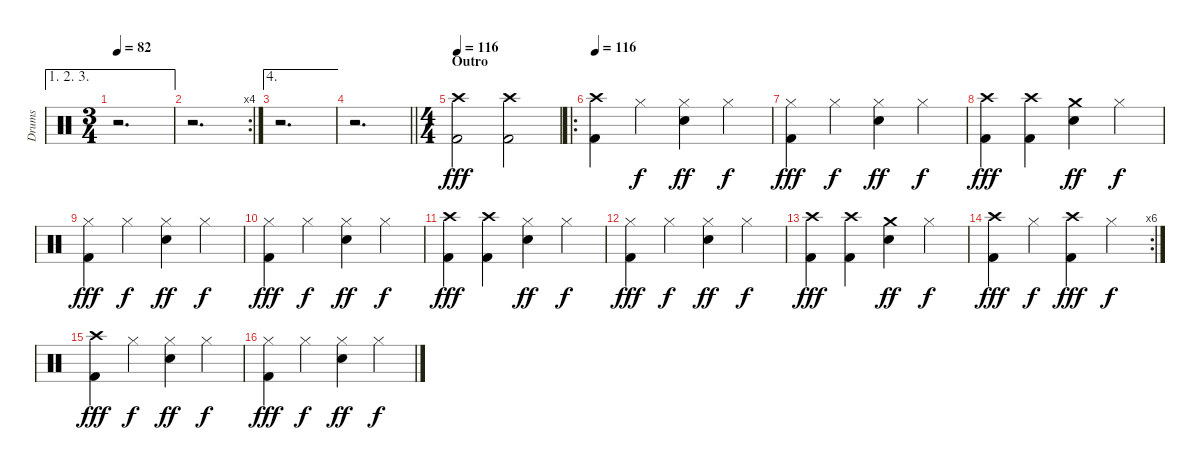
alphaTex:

\track ("Drums" "Drums") {instrument percussion}
\staff {score}
\articulation defaults
\ae (1 2 3)
\ts (3 4)
\tempo 82
\clef neutral
\ks c
r.2{d dy f} |
\rc 4
r.2{d} |
\ae 4
r.2{d} |
\barLineRight lightlight
r.2{d} |
\ts (4 4)
\section ("" "Outro")
\tempo 116
("Crash high (hit)" "Kick (hit) 2").2{dy fff} ("Crash high (hit)" "Kick (hit) 2").2 |
\ro
\tempo 116
("Crash high (hit)" "Kick (hit) 2").4 "Hi-Hat (closed)".4{dy f} ("Hi-Hat (closed)" "Electric Snare (hit)").4{dy ff} "Hi-Hat (closed)".4{dy f} |
("Hi-Hat (closed)" "Kick (hit) 2").4{dy fff} "Hi-Hat (closed)".4{dy f} ("Hi-Hat (closed)" "Electric Snare (hit)").4{dy ff} "Hi-Hat (closed)".4{dy f} |
("Crash high (hit)" "Kick (hit) 2").4{dy fff} ("Crash high (hit)" "Kick (hit) 2").4 ("Crash medium (hit)" "Electric Snare (hit)").4{dy ff} "Hi-Hat (closed)".4{dy f} |
("Hi-Hat (closed)" "Kick (hit) 2").4{dy fff} "Hi-Hat (closed)".4{dy f} ("Hi-Hat (closed)" "Electric Snare (hit)").4{dy ff} "Hi-Hat (closed)".4{dy f} |
("Hi-Hat (closed)" "Kick (hit) 2").4{dy fff} "Hi-Hat (closed)".4{dy f} ("Hi-Hat (closed)" "Electric Snare (hit)").4{dy ff} "Hi-Hat (closed)".4{dy f} |
("Crash high (hit)" "Kick (hit) 2").4{dy fff} ("Crash high (hit)" "Kick (hit) 2").4 ("Hi-Hat (closed)" "Electric Snare (hit)").4{dy ff} "Hi-Hat (closed)".4{dy f} |
("Hi-Hat (closed)" "Kick (hit) 2").4{dy fff} "Hi-Hat (closed)".4{dy f} ("Hi-Hat (closed)" "Electric Snare (hit)").4{dy ff} "Hi-Hat (closed)".4{dy f} |
("Crash high (hit)" "Kick (hit) 2").4{dy fff} ("Crash high (hit)" "Kick (hit) 2").4 ("Crash medium (hit)" "Electric Snare (hit)").4{dy ff} "Hi-Hat (closed)".4{dy f} |
\rc 6
("Crash high (hit)" "Kick (hit) 2").4{dy fff} "Hi-Hat (closed)".4{dy f} ("Crash high (hit)" "Kick (hit) 2").4{dy fff} "Hi-Hat (closed)".4{dy f} |
("Crash high (hit)" "Kick (hit) 2").4{dy fff} "Hi-Hat (closed)".4{dy f} ("Hi-Hat (closed)" "Electric Snare (hit)").4{dy ff} "Hi-Hat (closed)".4{dy f} |
("Hi-Hat (closed)" "Kick (hit) 2").4{dy fff} "Hi-Hat (closed)".4{dy f} ("Hi-Hat (closed)" "Electric Snare (hit)").4{dy ff} "Hi-Hat (closed)".4{dy f}
